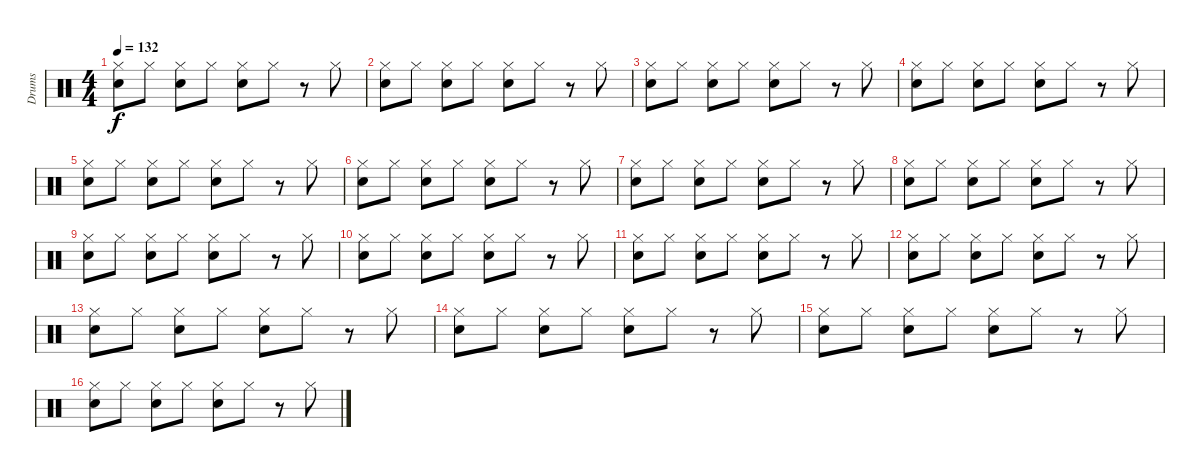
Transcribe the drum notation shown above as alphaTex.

\track ("Drums" "Drums") {instrument percussion}
\staff {score}
\articulation defaults
\ts (4 4)
\tempo 132
\clef neutral
\ks c
("Hi-Hat (closed)" "Electric Snare (hit)").8{dy f} "Hi-Hat (closed)".8 ("Hi-Hat (closed)" "Electric Snare (hit)").8 "Hi-Hat (closed)".8 ("Hi-Hat (closed)" "Electric Snare (hit)").8 "Hi-Hat (closed)".8 r.8 "Hi-Hat (closed)".8 |
("Hi-Hat (closed)" "Electric Snare (hit)").8 "Hi-Hat (closed)".8 ("Hi-Hat (closed)" "Electric Snare (hit)").8 "Hi-Hat (closed)".8 ("Hi-Hat (closed)" "Electric Snare (hit)").8 "Hi-Hat (closed)".8 r.8 "Hi-Hat (closed)".8 |
("Hi-Hat (closed)" "Electric Snare (hit)").8 "Hi-Hat (closed)".8 ("Hi-Hat (closed)" "Electric Snare (hit)").8 "Hi-Hat (closed)".8 ("Hi-Hat (closed)" "Electric Snare (hit)").8 "Hi-Hat (closed)".8 r.8 "Hi-Hat (closed)".8 |
("Hi-Hat (closed)" "Electric Snare (hit)").8 "Hi-Hat (closed)".8 ("Hi-Hat (closed)" "Electric Snare (hit)").8 "Hi-Hat (closed)".8 ("Hi-Hat (closed)" "Electric Snare (hit)").8 "Hi-Hat (closed)".8 r.8 "Hi-Hat (closed)".8 |
("Hi-Hat (closed)" "Electric Snare (hit)").8 "Hi-Hat (closed)".8 ("Hi-Hat (closed)" "Electric Snare (hit)").8 "Hi-Hat (closed)".8 ("Hi-Hat (closed)" "Electric Snare (hit)").8 "Hi-Hat (closed)".8 r.8 "Hi-Hat (closed)".8 |
("Hi-Hat (closed)" "Electric Snare (hit)").8 "Hi-Hat (closed)".8 ("Hi-Hat (closed)" "Electric Snare (hit)").8 "Hi-Hat (closed)".8 ("Hi-Hat (closed)" "Electric Snare (hit)").8 "Hi-Hat (closed)".8 r.8 "Hi-Hat (closed)".8 |
("Hi-Hat (closed)" "Electric Snare (hit)").8 "Hi-Hat (closed)".8 ("Hi-Hat (closed)" "Electric Snare (hit)").8 "Hi-Hat (closed)".8 ("Hi-Hat (closed)" "Electric Snare (hit)").8 "Hi-Hat (closed)".8 r.8 "Hi-Hat (closed)".8 |
("Hi-Hat (closed)" "Electric Snare (hit)").8 "Hi-Hat (closed)".8 ("Hi-Hat (closed)" "Electric Snare (hit)").8 "Hi-Hat (closed)".8 ("Hi-Hat (closed)" "Electric Snare (hit)").8 "Hi-Hat (closed)".8 r.8 "Hi-Hat (closed)".8 |
("Hi-Hat (closed)" "Electric Snare (hit)").8 "Hi-Hat (closed)".8 ("Hi-Hat (closed)" "Electric Snare (hit)").8 "Hi-Hat (closed)".8 ("Hi-Hat (closed)" "Electric Snare (hit)").8 "Hi-Hat (closed)".8 r.8 "Hi-Hat (closed)".8 |
("Hi-Hat (closed)" "Electric Snare (hit)").8 "Hi-Hat (closed)".8 ("Hi-Hat (closed)" "Electric Snare (hit)").8 "Hi-Hat (closed)".8 ("Hi-Hat (closed)" "Electric Snare (hit)").8 "Hi-Hat (closed)".8 r.8 "Hi-Hat (closed)".8 |
("Hi-Hat (closed)" "Electric Snare (hit)").8 "Hi-Hat (closed)".8 ("Hi-Hat (closed)" "Electric Snare (hit)").8 "Hi-Hat (closed)".8 ("Hi-Hat (closed)" "Electric Snare (hit)").8 "Hi-Hat (closed)".8 r.8 "Hi-Hat (closed)".8 |
("Hi-Hat (closed)" "Electric Snare (hit)").8 "Hi-Hat (closed)".8 ("Hi-Hat (closed)" "Electric Snare (hit)").8 "Hi-Hat (closed)".8 ("Hi-Hat (closed)" "Electric Snare (hit)").8 "Hi-Hat (closed)".8 r.8 "Hi-Hat (closed)".8 |
("Hi-Hat (closed)" "Electric Snare (hit)").8 "Hi-Hat (closed)".8 ("Hi-Hat (closed)" "Electric Snare (hit)").8 "Hi-Hat (closed)".8 ("Hi-Hat (closed)" "Electric Snare (hit)").8 "Hi-Hat (closed)".8 r.8 "Hi-Hat (closed)".8 |
("Hi-Hat (closed)" "Electric Snare (hit)").8 "Hi-Hat (closed)".8 ("Hi-Hat (closed)" "Electric Snare (hit)").8 "Hi-Hat (closed)".8 ("Hi-Hat (closed)" "Electric Snare (hit)").8 "Hi-Hat (closed)".8 r.8 "Hi-Hat (closed)".8 |
("Hi-Hat (closed)" "Electric Snare (hit)").8 "Hi-Hat (closed)".8 ("Hi-Hat (closed)" "Electric Snare (hit)").8 "Hi-Hat (closed)".8 ("Hi-Hat (closed)" "Electric Snare (hit)").8 "Hi-Hat (closed)".8 r.8 "Hi-Hat (closed)".8 |
("Hi-Hat (closed)" "Electric Snare (hit)").8 "Hi-Hat (closed)".8 ("Hi-Hat (closed)" "Electric Snare (hit)").8 "Hi-Hat (closed)".8 ("Hi-Hat (closed)" "Electric Snare (hit)").8 "Hi-Hat (closed)".8 r.8 "Hi-Hat (closed)".8
